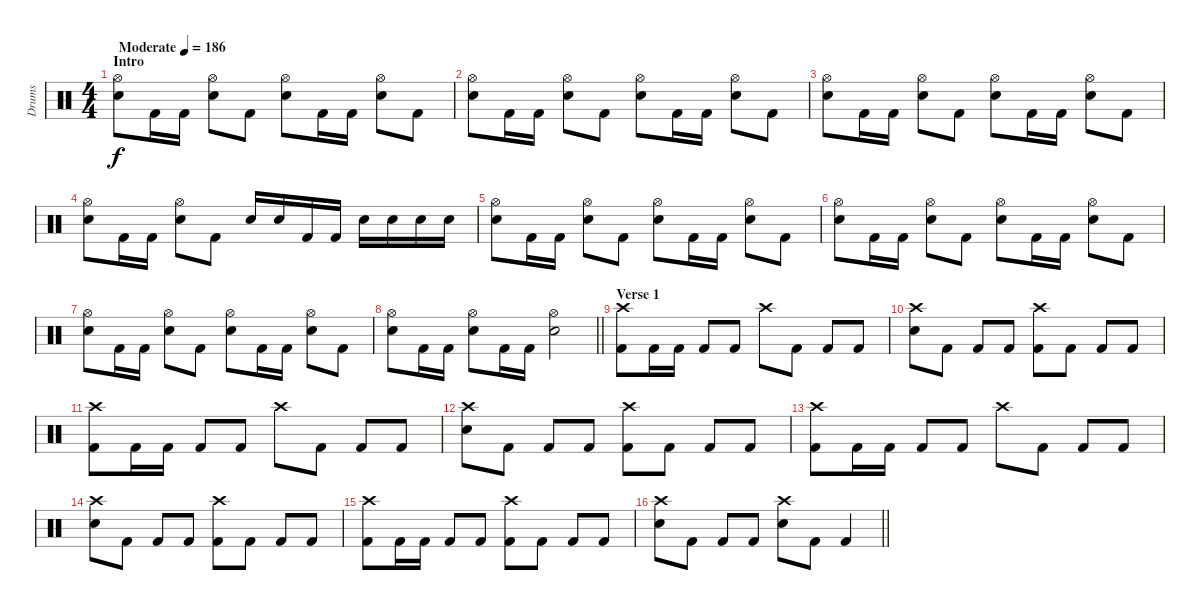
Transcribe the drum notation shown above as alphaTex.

\track ("Drums" "Drums") {instrument percussion}
\staff {score}
\articulation defaults
\ts (4 4)
\section ("" "Intro")
\tempo (186 "Moderate")
\clef neutral
\ks c
("Hi-Hat (open)" "Snare (hit) 2").8{dy f} "Kick (hit) 2".16 "Kick (hit) 2".16 ("Hi-Hat (open)" "Snare (hit) 2").8 "Kick (hit) 2".8 ("Hi-Hat (open)" "Snare (hit) 2").8 "Kick (hit) 2".16 "Kick (hit) 2".16 ("Hi-Hat (open)" "Snare (hit) 2").8 "Kick (hit) 2".8 |
("Hi-Hat (open)" "Snare (hit) 2").8 "Kick (hit) 2".16 "Kick (hit) 2".16 ("Hi-Hat (open)" "Snare (hit) 2").8 "Kick (hit) 2".8 ("Hi-Hat (open)" "Snare (hit) 2").8 "Kick (hit) 2".16 "Kick (hit) 2".16 ("Hi-Hat (open)" "Snare (hit) 2").8 "Kick (hit) 2".8 |
("Hi-Hat (open)" "Snare (hit) 2").8 "Kick (hit) 2".16 "Kick (hit) 2".16 ("Hi-Hat (open)" "Snare (hit) 2").8 "Kick (hit) 2".8 ("Hi-Hat (open)" "Snare (hit) 2").8 "Kick (hit) 2".16 "Kick (hit) 2".16 ("Hi-Hat (open)" "Snare (hit) 2").8 "Kick (hit) 2".8 |
("Hi-Hat (open)" "Snare (hit) 2").8 "Kick (hit) 2".16 "Kick (hit) 2".16 ("Hi-Hat (open)" "Snare (hit) 2").8 "Kick (hit) 2".8 "Snare (hit) 2".16 "Snare (hit) 2".16 "Kick (hit) 2".16 "Kick (hit) 2".16 "Snare (hit) 2".16 "Snare (hit) 2".16 "Snare (hit) 2".16 "Snare (hit) 2".16 |
("Hi-Hat (open)" "Snare (hit) 2").8 "Kick (hit) 2".16 "Kick (hit) 2".16 ("Hi-Hat (open)" "Snare (hit) 2").8 "Kick (hit) 2".8 ("Hi-Hat (open)" "Snare (hit) 2").8 "Kick (hit) 2".16 "Kick (hit) 2".16 ("Hi-Hat (open)" "Snare (hit) 2").8 "Kick (hit) 2".8 |
("Hi-Hat (open)" "Snare (hit) 2").8 "Kick (hit) 2".16 "Kick (hit) 2".16 ("Hi-Hat (open)" "Snare (hit) 2").8 "Kick (hit) 2".8 ("Hi-Hat (open)" "Snare (hit) 2").8 "Kick (hit) 2".16 "Kick (hit) 2".16 ("Hi-Hat (open)" "Snare (hit) 2").8 "Kick (hit) 2".8 |
("Hi-Hat (open)" "Snare (hit) 2").8 "Kick (hit) 2".16 "Kick (hit) 2".16 ("Hi-Hat (open)" "Snare (hit) 2").8 "Kick (hit) 2".8 ("Hi-Hat (open)" "Snare (hit) 2").8 "Kick (hit) 2".16 "Kick (hit) 2".16 ("Hi-Hat (open)" "Snare (hit) 2").8 "Kick (hit) 2".8 |
\barLineRight lightlight
("Hi-Hat (open)" "Snare (hit) 2").8 "Kick (hit) 2".16 "Kick (hit) 2".16 ("Hi-Hat (open)" "Snare (hit) 2").8 "Kick (hit) 2".16 "Kick (hit) 2".16 ("Hi-Hat (open)" "Snare (hit) 2").2 |
\section ("" "Verse 1")
("Crash high (hit)" "Kick (hit) 2").8 "Kick (hit) 2".16 "Kick (hit) 2".16 "Kick (hit) 2".8 "Kick (hit) 2".8 "Crash high (hit)".8 "Kick (hit) 2".8 "Kick (hit) 2".8 "Kick (hit) 2".8 |
("Crash high (hit)" "Snare (hit) 2").8 "Kick (hit) 2".8 "Kick (hit) 2".8 "Kick (hit) 2".8 ("Crash high (hit)" "Kick (hit) 2").8 "Kick (hit) 2".8 "Kick (hit) 2".8 "Kick (hit) 2".8 |
("Crash high (hit)" "Kick (hit) 2").8 "Kick (hit) 2".16 "Kick (hit) 2".16 "Kick (hit) 2".8 "Kick (hit) 2".8 "Crash high (hit)".8 "Kick (hit) 2".8 "Kick (hit) 2".8 "Kick (hit) 2".8 |
("Crash high (hit)" "Snare (hit) 2").8 "Kick (hit) 2".8 "Kick (hit) 2".8 "Kick (hit) 2".8 ("Crash high (hit)" "Kick (hit) 2").8 "Kick (hit) 2".8 "Kick (hit) 2".8 "Kick (hit) 2".8 |
("Crash high (hit)" "Kick (hit) 2").8 "Kick (hit) 2".16 "Kick (hit) 2".16 "Kick (hit) 2".8 "Kick (hit) 2".8 "Crash high (hit)".8 "Kick (hit) 2".8 "Kick (hit) 2".8 "Kick (hit) 2".8 |
("Crash high (hit)" "Snare (hit) 2").8 "Kick (hit) 2".8 "Kick (hit) 2".8 "Kick (hit) 2".8 ("Crash high (hit)" "Kick (hit) 2").8 "Kick (hit) 2".8 "Kick (hit) 2".8 "Kick (hit) 2".8 |
("Crash high (hit)" "Kick (hit) 2").8 "Kick (hit) 2".16 "Kick (hit) 2".16 "Kick (hit) 2".8 "Kick (hit) 2".8 ("Crash high (hit)" "Kick (hit) 2").8 "Kick (hit) 2".8 "Kick (hit) 2".8 "Kick (hit) 2".8 |
\barLineRight lightlight
("Crash high (hit)" "Snare (hit) 2").8 "Kick (hit) 2".8 "Kick (hit) 2".8 "Kick (hit) 2".8 ("Crash high (hit)" "Snare (hit) 2").8 "Kick (hit) 2".8 "Kick (hit) 2".4
